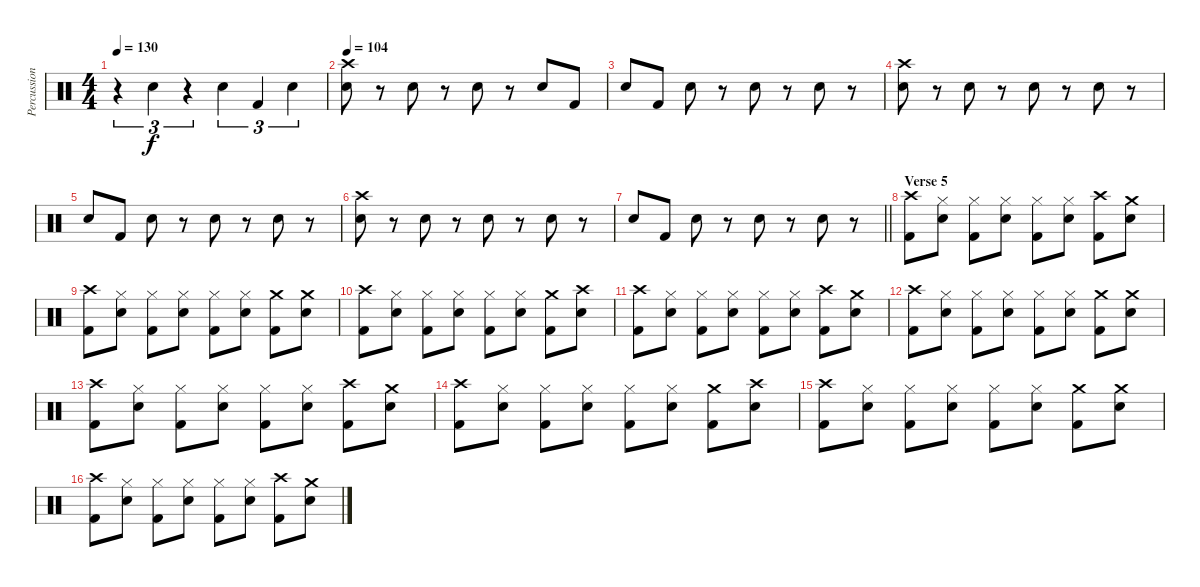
\track ("Percussion" "Percussion") {instrument percussion}
\staff {score}
\articulation defaults
\ts (4 4)
\tempo 130
\clef neutral
\ks c
r.4{tu (3 2) dy f} "Snare (hit) 2".4{tu (3 2)} r.4{tu (3 2)} "Snare (hit) 2".4{tu (3 2)} "Kick (hit) 2".4{tu (3 2)} "Snare (hit) 2".4{tu (3 2)} |
\tempo 104
("Crash high (hit)" "Snare (hit) 2").8 r.8 "Snare (hit) 2".8 r.8 "Snare (hit) 2".8 r.8 "Snare (hit) 2".8 "Kick (hit) 2".8 |
"Snare (hit) 2".8 "Kick (hit) 2".8 "Snare (hit) 2".8 r.8 "Snare (hit) 2".8 r.8 "Snare (hit) 2".8 r.8 |
("Crash high (hit)" "Snare (hit) 2").8 r.8 "Snare (hit) 2".8 r.8 "Snare (hit) 2".8 r.8 "Snare (hit) 2".8 r.8 |
"Snare (hit) 2".8 "Kick (hit) 2".8 "Snare (hit) 2".8 r.8 "Snare (hit) 2".8 r.8 "Snare (hit) 2".8 r.8 |
("Crash high (hit)" "Snare (hit) 2").8 r.8 "Snare (hit) 2".8 r.8 "Snare (hit) 2".8 r.8 "Snare (hit) 2".8 r.8 |
\barLineRight lightlight "Snare (hit) 2".8 "Kick (hit) 2".8 "Snare (hit) 2".8
r.8 "Snare (hit) 2".8 r.8 "Snare (hit) 2".8 r.8 |
\section ("" "Verse 5")
("Crash high (hit)" "Kick (hit) 2").8 ("Hi-Hat (closed)" "Snare (hit) 2").8 ("Hi-Hat (closed)" "Kick (hit) 2").8 ("Hi-Hat (closed)" "Snare (hit) 2").8 ("Hi-Hat (closed)" "Kick (hit) 2").8 ("Hi-Hat (closed)" "Snare (hit) 2").8 ("Crash high (hit)" "Kick (hit) 2").8 ("Crash medium (hit)" "Snare (hit) 2").8 |
("Crash high (hit)" "Kick (hit) 2").8 ("Hi-Hat (closed)" "Snare (hit) 2").8 ("Hi-Hat (closed)" "Kick (hit) 2").8 ("Hi-Hat (closed)" "Snare (hit) 2").8 ("Hi-Hat (closed)" "Kick (hit) 2").8 ("Hi-Hat (closed)" "Snare (hit) 2").8 ("Crash medium (hit)" "Kick (hit) 2").8 ("Crash medium (hit)" "Snare (hit) 2").8 |
("Crash high (hit)" "Kick (hit) 2").8 ("Hi-Hat (closed)" "Snare (hit) 2").8 ("Hi-Hat (closed)" "Kick (hit) 2").8 ("Hi-Hat (closed)" "Snare (hit) 2").8 ("Hi-Hat (closed)" "Kick (hit) 2").8 ("Hi-Hat (closed)" "Snare (hit) 2").8 ("Crash medium (hit)" "Kick (hit) 2").8 ("Crash high (hit)" "Snare (hit) 2").8 |
("Crash high (hit)" "Kick (hit) 2").8 ("Hi-Hat (closed)" "Snare (hit) 2").8 ("Hi-Hat (closed)" "Kick (hit) 2").8 ("Hi-Hat (closed)" "Snare (hit) 2").8 ("Hi-Hat (closed)" "Kick (hit) 2").8 ("Hi-Hat (closed)" "Snare (hit) 2").8 ("Crash high (hit)" "Kick (hit) 2").8 ("Crash medium (hit)" "Snare (hit) 2").8 |
("Crash high (hit)" "Kick (hit) 2").8 ("Hi-Hat (closed)" "Snare (hit) 2").8 ("Hi-Hat (closed)" "Kick (hit) 2").8 ("Hi-Hat (closed)" "Snare (hit) 2").8 ("Hi-Hat (closed)" "Kick (hit) 2").8 ("Hi-Hat (closed)" "Snare (hit) 2").8 ("Crash medium (hit)" "Kick (hit) 2").8 ("Crash medium (hit)" "Snare (hit) 2").8 |
("Crash high (hit)" "Kick (hit) 2").8 ("Hi-Hat (closed)" "Snare (hit) 2").8 ("Hi-Hat (closed)" "Kick (hit) 2").8 ("Hi-Hat (closed)" "Snare (hit) 2").8 ("Hi-Hat (closed)" "Kick (hit) 2").8 ("Hi-Hat (closed)" "Snare (hit) 2").8 ("Crash high (hit)" "Kick (hit) 2").8 ("Crash medium (hit)" "Snare (hit) 2").8 |
("Crash high (hit)" "Kick (hit) 2").8 ("Hi-Hat (closed)" "Snare (hit) 2").8 ("Hi-Hat (closed)" "Kick (hit) 2").8 ("Hi-Hat (closed)" "Snare (hit) 2").8 ("Hi-Hat (closed)" "Kick (hit) 2").8 ("Hi-Hat (closed)" "Snare (hit) 2").8 ("Crash medium (hit)" "Kick (hit) 2").8 ("Crash high (hit)" "Snare (hit) 2").8 |
("Crash high (hit)" "Kick (hit) 2").8 ("Hi-Hat (closed)" "Snare (hit) 2").8 ("Hi-Hat (closed)" "Kick (hit) 2").8 ("Hi-Hat (closed)" "Snare (hit) 2").8 ("Hi-Hat (closed)" "Kick (hit) 2").8 ("Hi-Hat (closed)" "Snare (hit) 2").8 ("Crash medium (hit)" "Kick (hit) 2").8 ("Crash medium (hit)" "Snare (hit) 2").8 |
("Crash high (hit)" "Kick (hit) 2").8 ("Hi-Hat (closed)" "Snare (hit) 2").8 ("Hi-Hat (closed)" "Kick (hit) 2").8 ("Hi-Hat (closed)" "Snare (hit) 2").8 ("Hi-Hat (closed)" "Kick (hit) 2").8 ("Hi-Hat (closed)" "Snare (hit) 2").8 ("Crash high (hit)" "Kick (hit) 2").8 ("Crash medium (hit)" "Snare (hit) 2").8
